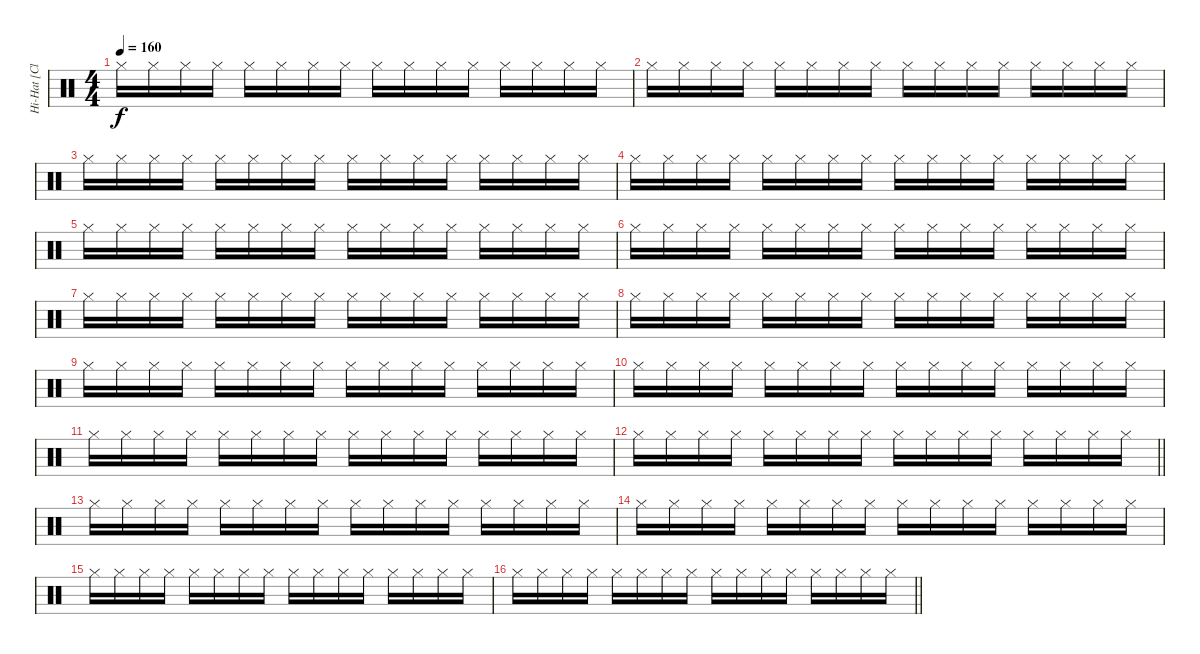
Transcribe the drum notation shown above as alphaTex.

\track ("Hi-Hat [Closed]" "Hi-Hat [Cl") {instrument percussion}
\staff {score}
\articulation defaults
\ts (4 4)
\tempo 160
\clef neutral
\ks c "Hi-Hat (closed)".16{dy f} "Hi-Hat (closed)".16 "Hi-Hat (closed)".16 "Hi-Hat (closed)".16 "Hi-Hat (closed)".16 "Hi-Hat (closed)".16 "Hi-Hat (closed)".16 "Hi-Hat (closed)".16 "Hi-Hat (closed)".16 "Hi-Hat (closed)".16 "Hi-Hat (closed)".16 "Hi-Hat (closed)".16 "Hi-Hat (closed)".16 "Hi-Hat (closed)".16 "Hi-Hat (closed)".16 "Hi-Hat (closed)".16
|
"Hi-Hat (closed)".16 "Hi-Hat (closed)".16 "Hi-Hat (closed)".16 "Hi-Hat (closed)".16 "Hi-Hat (closed)".16 "Hi-Hat (closed)".16 "Hi-Hat (closed)".16 "Hi-Hat (closed)".16 "Hi-Hat (closed)".16 "Hi-Hat (closed)".16 "Hi-Hat (closed)".16 "Hi-Hat (closed)".16 "Hi-Hat (closed)".16 "Hi-Hat (closed)".16 "Hi-Hat (closed)".16 "Hi-Hat (closed)".16 |
"Hi-Hat (closed)".16 "Hi-Hat (closed)".16 "Hi-Hat (closed)".16 "Hi-Hat (closed)".16 "Hi-Hat (closed)".16 "Hi-Hat (closed)".16 "Hi-Hat (closed)".16 "Hi-Hat (closed)".16 "Hi-Hat (closed)".16 "Hi-Hat (closed)".16 "Hi-Hat (closed)".16 "Hi-Hat (closed)".16 "Hi-Hat (closed)".16 "Hi-Hat (closed)".16 "Hi-Hat (closed)".16 "Hi-Hat (closed)".16 |
"Hi-Hat (closed)".16 "Hi-Hat (closed)".16 "Hi-Hat (closed)".16 "Hi-Hat (closed)".16 "Hi-Hat (closed)".16 "Hi-Hat (closed)".16 "Hi-Hat (closed)".16 "Hi-Hat (closed)".16 "Hi-Hat (closed)".16 "Hi-Hat (closed)".16 "Hi-Hat (closed)".16 "Hi-Hat (closed)".16 "Hi-Hat (closed)".16 "Hi-Hat (closed)".16 "Hi-Hat (closed)".16 "Hi-Hat (closed)".16 |
"Hi-Hat (closed)".16 "Hi-Hat (closed)".16 "Hi-Hat (closed)".16 "Hi-Hat (closed)".16 "Hi-Hat (closed)".16 "Hi-Hat (closed)".16 "Hi-Hat (closed)".16 "Hi-Hat (closed)".16 "Hi-Hat (closed)".16 "Hi-Hat (closed)".16 "Hi-Hat (closed)".16 "Hi-Hat (closed)".16 "Hi-Hat (closed)".16 "Hi-Hat (closed)".16 "Hi-Hat (closed)".16 "Hi-Hat (closed)".16 |
"Hi-Hat (closed)".16 "Hi-Hat (closed)".16 "Hi-Hat (closed)".16 "Hi-Hat (closed)".16 "Hi-Hat (closed)".16 "Hi-Hat (closed)".16 "Hi-Hat (closed)".16 "Hi-Hat (closed)".16 "Hi-Hat (closed)".16 "Hi-Hat (closed)".16 "Hi-Hat (closed)".16 "Hi-Hat (closed)".16 "Hi-Hat (closed)".16 "Hi-Hat (closed)".16 "Hi-Hat (closed)".16 "Hi-Hat (closed)".16 |
"Hi-Hat (closed)".16 "Hi-Hat (closed)".16 "Hi-Hat (closed)".16 "Hi-Hat (closed)".16 "Hi-Hat (closed)".16 "Hi-Hat (closed)".16 "Hi-Hat (closed)".16 "Hi-Hat (closed)".16 "Hi-Hat (closed)".16 "Hi-Hat (closed)".16 "Hi-Hat (closed)".16 "Hi-Hat (closed)".16 "Hi-Hat (closed)".16 "Hi-Hat (closed)".16 "Hi-Hat (closed)".16 "Hi-Hat (closed)".16 |
"Hi-Hat (closed)".16 "Hi-Hat (closed)".16 "Hi-Hat (closed)".16 "Hi-Hat (closed)".16 "Hi-Hat (closed)".16 "Hi-Hat (closed)".16 "Hi-Hat (closed)".16 "Hi-Hat (closed)".16 "Hi-Hat (closed)".16 "Hi-Hat (closed)".16 "Hi-Hat (closed)".16 "Hi-Hat (closed)".16 "Hi-Hat (closed)".16 "Hi-Hat (closed)".16 "Hi-Hat (closed)".16 "Hi-Hat (closed)".16 |
"Hi-Hat (closed)".16 "Hi-Hat (closed)".16 "Hi-Hat (closed)".16 "Hi-Hat (closed)".16 "Hi-Hat (closed)".16 "Hi-Hat (closed)".16 "Hi-Hat (closed)".16 "Hi-Hat (closed)".16 "Hi-Hat (closed)".16 "Hi-Hat (closed)".16 "Hi-Hat (closed)".16 "Hi-Hat (closed)".16 "Hi-Hat (closed)".16 "Hi-Hat (closed)".16 "Hi-Hat (closed)".16 "Hi-Hat (closed)".16 |
"Hi-Hat (closed)".16 "Hi-Hat (closed)".16 "Hi-Hat (closed)".16 "Hi-Hat (closed)".16 "Hi-Hat (closed)".16 "Hi-Hat (closed)".16 "Hi-Hat (closed)".16 "Hi-Hat (closed)".16 "Hi-Hat (closed)".16 "Hi-Hat (closed)".16 "Hi-Hat (closed)".16 "Hi-Hat (closed)".16 "Hi-Hat (closed)".16 "Hi-Hat (closed)".16 "Hi-Hat (closed)".16 "Hi-Hat (closed)".16 |
"Hi-Hat (closed)".16 "Hi-Hat (closed)".16 "Hi-Hat (closed)".16 "Hi-Hat (closed)".16 "Hi-Hat (closed)".16 "Hi-Hat (closed)".16 "Hi-Hat (closed)".16 "Hi-Hat (closed)".16 "Hi-Hat (closed)".16 "Hi-Hat (closed)".16 "Hi-Hat (closed)".16 "Hi-Hat (closed)".16 "Hi-Hat (closed)".16 "Hi-Hat (closed)".16 "Hi-Hat (closed)".16 "Hi-Hat (closed)".16 |
\barLineRight lightlight "Hi-Hat (closed)".16 "Hi-Hat (closed)".16 "Hi-Hat (closed)".16 "Hi-Hat (closed)".16 "Hi-Hat (closed)".16 "Hi-Hat (closed)".16 "Hi-Hat (closed)".16 "Hi-Hat (closed)".16 "Hi-Hat (closed)".16 "Hi-Hat (closed)".16 "Hi-Hat (closed)".16 "Hi-Hat (closed)".16 "Hi-Hat (closed)".16 "Hi-Hat (closed)".16 "Hi-Hat (closed)".16 "Hi-Hat (closed)".16
|
"Hi-Hat (closed)".16 "Hi-Hat (closed)".16 "Hi-Hat (closed)".16 "Hi-Hat (closed)".16 "Hi-Hat (closed)".16 "Hi-Hat (closed)".16 "Hi-Hat (closed)".16 "Hi-Hat (closed)".16 "Hi-Hat (closed)".16 "Hi-Hat (closed)".16 "Hi-Hat (closed)".16 "Hi-Hat (closed)".16 "Hi-Hat (closed)".16 "Hi-Hat (closed)".16 "Hi-Hat (closed)".16 "Hi-Hat (closed)".16 |
"Hi-Hat (closed)".16 "Hi-Hat (closed)".16 "Hi-Hat (closed)".16 "Hi-Hat (closed)".16 "Hi-Hat (closed)".16 "Hi-Hat (closed)".16 "Hi-Hat (closed)".16 "Hi-Hat (closed)".16 "Hi-Hat (closed)".16 "Hi-Hat (closed)".16 "Hi-Hat (closed)".16 "Hi-Hat (closed)".16 "Hi-Hat (closed)".16 "Hi-Hat (closed)".16 "Hi-Hat (closed)".16 "Hi-Hat (closed)".16 |
"Hi-Hat (closed)".16 "Hi-Hat (closed)".16 "Hi-Hat (closed)".16 "Hi-Hat (closed)".16 "Hi-Hat (closed)".16 "Hi-Hat (closed)".16 "Hi-Hat (closed)".16 "Hi-Hat (closed)".16 "Hi-Hat (closed)".16 "Hi-Hat (closed)".16 "Hi-Hat (closed)".16 "Hi-Hat (closed)".16 "Hi-Hat (closed)".16 "Hi-Hat (closed)".16 "Hi-Hat (closed)".16 "Hi-Hat (closed)".16 |
\barLineRight lightlight "Hi-Hat (closed)".16 "Hi-Hat (closed)".16 "Hi-Hat (closed)".16 "Hi-Hat (closed)".16 "Hi-Hat (closed)".16 "Hi-Hat (closed)".16 "Hi-Hat (closed)".16 "Hi-Hat (closed)".16 "Hi-Hat (closed)".16 "Hi-Hat (closed)".16 "Hi-Hat (closed)".16 "Hi-Hat (closed)".16 "Hi-Hat (closed)".16 "Hi-Hat (closed)".16 "Hi-Hat (closed)".16 "Hi-Hat (closed)".16
